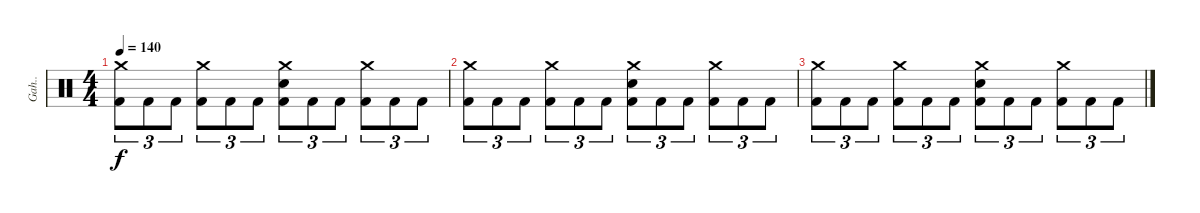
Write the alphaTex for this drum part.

\track ("Gah.." "Gah..") {instrument percussion}
\staff {score}
\articulation defaults
\ts (4 4)
\tempo 140
\clef neutral
\ks c
("Crash medium (hit)" "Kick (hit) 2").8{tu (3 2) dy f volume 4} "Kick (hit) 2".8{tu (3 2)} "Kick (hit) 2".8{tu (3 2)} ("Crash medium (hit)" "Kick (hit) 2").8{tu (3 2)} "Kick (hit) 2".8{tu (3 2)} "Kick (hit) 2".8{tu (3 2)} ("Crash medium (hit)" "Electric Snare (hit)" "Kick (hit) 2").8{tu (3 2)} "Kick (hit) 2".8{tu (3 2)} "Kick (hit) 2".8{tu (3 2)} ("Crash medium (hit)" "Kick (hit) 2").8{tu (3 2)} "Kick (hit) 2".8{tu (3 2)} "Kick (hit) 2".8{tu (3 2)} |
("Crash medium (hit)" "Kick (hit) 2").8{tu (3 2) volume 2} "Kick (hit) 2".8{tu (3 2)} "Kick (hit) 2".8{tu (3 2)} ("Crash medium (hit)" "Kick (hit) 2").8{tu (3 2)} "Kick (hit) 2".8{tu (3 2)} "Kick (hit) 2".8{tu (3 2)} ("Crash medium (hit)" "Electric Snare (hit)" "Kick (hit) 2").8{tu (3 2)} "Kick (hit) 2".8{tu (3 2)} "Kick (hit) 2".8{tu (3 2)} ("Crash medium (hit)" "Kick (hit) 2").8{tu (3 2)} "Kick (hit) 2".8{tu (3 2)} "Kick (hit) 2".8{tu (3 2)} |
("Crash medium (hit)" "Kick (hit) 2").8{tu (3 2) volume 0} "Kick (hit) 2".8{tu (3 2)} "Kick (hit) 2".8{tu (3 2)} ("Crash medium (hit)" "Kick (hit) 2").8{tu (3 2)} "Kick (hit) 2".8{tu (3 2)} "Kick (hit) 2".8{tu (3 2)} ("Crash medium (hit)" "Electric Snare (hit)" "Kick (hit) 2").8{tu (3 2)} "Kick (hit) 2".8{tu (3 2)} "Kick (hit) 2".8{tu (3 2)} ("Crash medium (hit)" "Kick (hit) 2").8{tu (3 2)} "Kick (hit) 2".8{tu (3 2)} "Kick (hit) 2".8{tu (3 2)}
